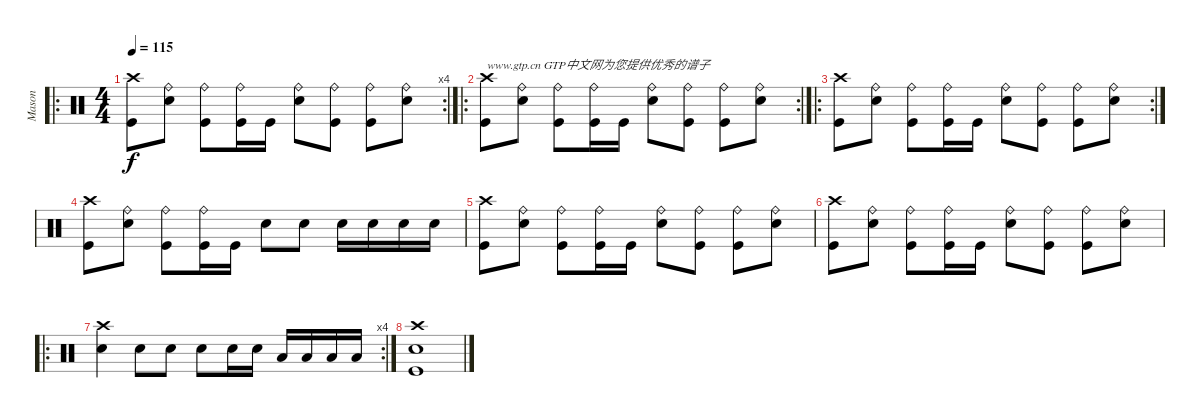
\track ("Mason" "Mason") {instrument percussion}
\staff {score}
\articulation defaults
\ro
\rc 4
\ts (4 4)
\tempo 115
\clef neutral
\ks c
("Kick (hit)" "Crash high (hit)").8{dy f} ("Snare (hit) 2" "Ride (bell)").8 ("Kick (hit)" "Ride (bell)").8 ("Kick (hit)" "Ride (bell)").16 "Kick (hit)".16 ("Snare (hit) 2" "Ride (bell)").8 ("Kick (hit)" "Ride (bell)").8 ("Kick (hit)" "Ride (bell)").8 ("Snare (hit) 2" "Ride (bell)").8 |
\ro
\rc 2
("Kick (hit)" "Crash high (hit)").8{txt "www.gtp.cn GTP中文网为您提供优秀的谱子"} ("Snare (hit) 2" "Ride (bell)").8 ("Kick (hit)" "Ride (bell)").8 ("Kick (hit)" "Ride (bell)").16 "Kick (hit)".16 ("Snare (hit) 2" "Ride (bell)").8 ("Kick (hit)" "Ride (bell)").8 ("Kick (hit)" "Ride (bell)").8 ("Snare (hit) 2" "Ride (bell)").8 |
\ro
\rc 2
("Kick (hit)" "Crash high (hit)").8 ("Snare (hit) 2" "Ride (bell)").8 ("Kick (hit)" "Ride (bell)").8 ("Kick (hit)" "Ride (bell)").16 "Kick (hit)".16 ("Snare (hit) 2" "Ride (bell)").8 ("Kick (hit)" "Ride (bell)").8 ("Kick (hit)" "Ride (bell)").8 ("Snare (hit) 2" "Ride (bell)").8 |
("Kick (hit)" "Crash high (hit)").8 ("Snare (hit) 2" "Ride (bell)").8 ("Kick (hit)" "Ride (bell)").8 ("Kick (hit)" "Ride (bell)").16 "Kick (hit)".16 "Snare (hit) 2".8 "Snare (hit) 2".8 "Snare (hit) 2".16 "Snare (hit) 2".16 "Snare (hit) 2".16 "Snare (hit) 2".16 |
("Kick (hit)" "Crash high (hit)").8 ("Snare (hit) 2" "Ride (bell)").8 ("Kick (hit)" "Ride (bell)").8 ("Kick (hit)" "Ride (bell)").16 "Kick (hit)".16 ("Snare (hit) 2" "Ride (bell)").8 ("Kick (hit)" "Ride (bell)").8 ("Kick (hit)" "Ride (bell)").8 ("Snare (hit) 2" "Ride (bell)").8 |
("Kick (hit)" "Crash high (hit)").8 ("Snare (hit) 2" "Ride (bell)").8 ("Kick (hit)" "Ride (bell)").8 ("Kick (hit)" "Ride (bell)").16 "Kick (hit)".16 ("Snare (hit) 2" "Ride (bell)").8 ("Kick (hit)" "Ride (bell)").8 ("Kick (hit)" "Ride (bell)").8 ("Snare (hit) 2" "Ride (bell)").8 |
\ro
\rc 4
("Snare (hit) 2" "Crash high (hit)").4 "Snare (hit) 2".8 "Snare (hit) 2".8 "Snare (hit) 2".8 "Snare (hit) 2".16 "Snare (hit) 2".16 "Low Tom (hit)".16 "Low Tom (hit)".16 "Low Floor Tom (hit)".16 "Low Floor Tom (hit)".16 |
("Snare (hit) 2" "Kick (hit)" "Crash high (hit)").1
